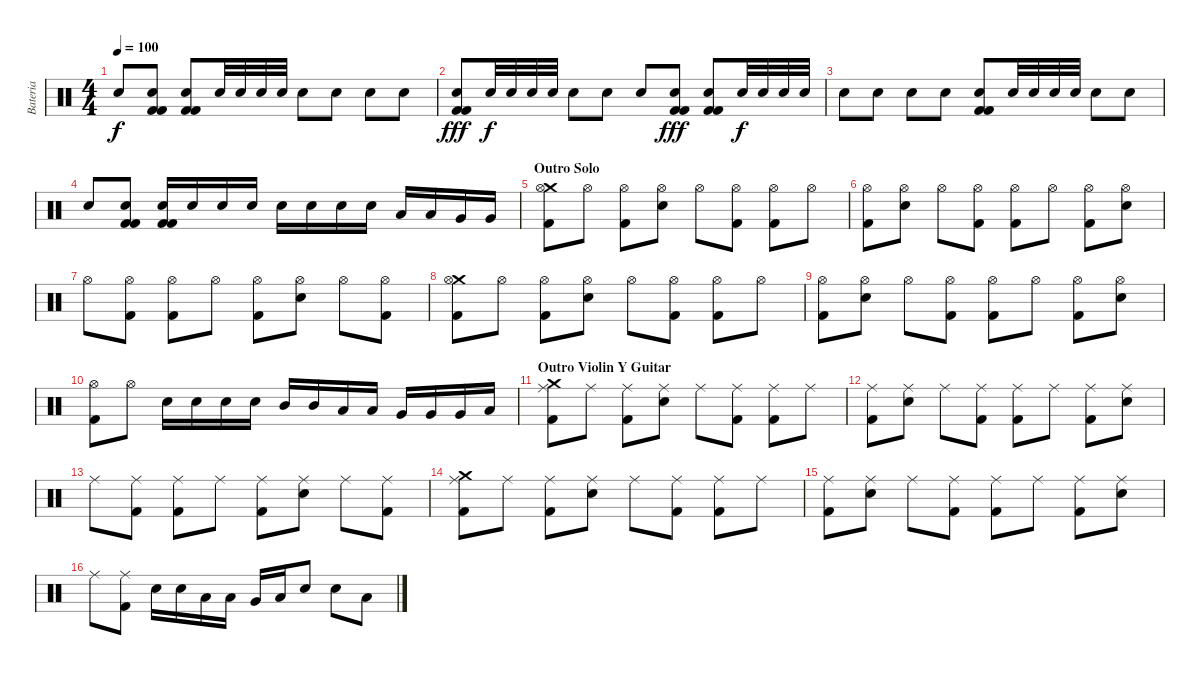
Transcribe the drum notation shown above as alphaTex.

\track ("Bateria" "Bateria") {instrument percussion}
\staff {score}
\articulation defaults
\ts (4 4)
\tempo 100
\clef neutral
\ks c "Snare (hit) 2".8{dy f}
("Kick (hit) 2" "Snare (hit) 2" "Kick (hit) 2").8 ("Snare (hit) 2" "Kick (hit) 2" "Kick (hit) 2").8 "Snare (hit) 2".32 "Snare (hit) 2".32 "Snare (hit) 2".32 "Snare (hit) 2".32 "Snare (hit) 2".8 "Snare (hit) 2".8 "Snare (hit) 2".8 "Snare (hit) 2".8 |
("Snare (hit) 2" "Kick (hit) 2" "Kick (hit) 2").8{dy fff} "Snare (hit) 2".32{dy f} "Snare (hit) 2".32 "Snare (hit) 2".32 "Snare (hit) 2".32 "Snare (hit) 2".8 "Snare (hit) 2".8 "Snare (hit) 2".8 ("Snare (hit) 2" "Kick (hit) 2" "Kick (hit) 2").8{dy fff} ("Snare (hit) 2" "Kick (hit) 2" "Kick (hit) 2").8 "Snare (hit) 2".32{dy f} "Snare (hit) 2".32 "Snare (hit) 2".32 "Snare (hit) 2".32 |
"Snare (hit) 2".8 "Snare (hit) 2".8 "Snare (hit) 2".8 "Snare (hit) 2".8 ("Snare (hit) 2" "Kick (hit) 2" "Kick (hit) 2").8 "Snare (hit) 2".32 "Snare (hit) 2".32 "Snare (hit) 2".32 "Snare (hit) 2".32 "Snare (hit) 2".8 "Snare (hit) 2".8 |
"Snare (hit) 2".8 ("Kick (hit) 2" "Snare (hit) 2" "Kick (hit) 2").8 ("Snare (hit) 2" "Kick (hit) 2" "Kick (hit) 2").16 "Snare (hit) 2".16 "Snare (hit) 2".16 "Snare (hit) 2".16 "Snare (hit) 2".16 "Snare (hit) 2".16 "Snare (hit) 2".16 "Snare (hit) 2".16 "Low Tom (hit)".16 "Low Tom (hit)".16 "Very Low Tom (hit)".16 "Very Low Tom (hit)".16 |
\section ("" "Outro Solo")
("Crash medium (hit)" "Hi-Hat (open)" "Kick (hit) 2").8 "Hi-Hat (open)".8 ("Kick (hit) 2" "Hi-Hat (open)").8 ("Hi-Hat (open)" "Snare (hit) 2").8 "Hi-Hat (open)".8 ("Hi-Hat (open)" "Kick (hit) 2").8 ("Kick (hit) 2" "Hi-Hat (open)").8 "Hi-Hat (open)".8 |
("Hi-Hat (open)" "Kick (hit) 2").8 ("Hi-Hat (open)" "Snare (hit) 2").8 "Hi-Hat (open)".8 ("Hi-Hat (open)" "Kick (hit) 2").8 ("Kick (hit) 2" "Hi-Hat (open)").8 "Hi-Hat (open)".8 ("Hi-Hat (open)" "Kick (hit) 2").8 ("Hi-Hat (open)" "Snare (hit) 2").8 |
"Hi-Hat (open)".8 ("Hi-Hat (open)" "Kick (hit) 2").8 ("Kick (hit) 2" "Hi-Hat (open)").8 "Hi-Hat (open)".8 ("Kick (hit) 2" "Hi-Hat (open)").8 ("Hi-Hat (open)" "Snare (hit) 2").8 "Hi-Hat (open)".8 ("Hi-Hat (open)" "Kick (hit) 2").8 |
("Crash medium (hit)" "Hi-Hat (open)" "Kick (hit) 2").8 "Hi-Hat (open)".8 ("Kick (hit) 2" "Hi-Hat (open)").8 ("Hi-Hat (open)" "Snare (hit) 2").8 "Hi-Hat (open)".8 ("Hi-Hat (open)" "Kick (hit) 2").8 ("Kick (hit) 2" "Hi-Hat (open)").8 "Hi-Hat (open)".8 |
("Hi-Hat (open)" "Kick (hit) 2").8 ("Hi-Hat (open)" "Snare (hit) 2").8 "Hi-Hat (open)".8 ("Hi-Hat (open)" "Kick (hit) 2").8 ("Kick (hit) 2" "Hi-Hat (open)").8 "Hi-Hat (open)".8 ("Hi-Hat (open)" "Kick (hit) 2").8 ("Hi-Hat (open)" "Snare (hit) 2").8 |
("Hi-Hat (open)" "Kick (hit) 2").8 "Hi-Hat (open)".8 "Snare (hit) 2".16 "Snare (hit) 2".16 "Snare (hit) 2".16 "Snare (hit) 2".16 "Mid Tom (hit)".16 "Mid Tom (hit)".16 "Low Tom (hit)".16 "Low Tom (hit)".16 "Very Low Tom (hit)".16 "Very Low Tom (hit)".16 "Very Low Tom (hit)".16 "Low Floor Tom (hit)".16 |
\section ("" "Outro Violin Y Guitar")
("Crash medium (hit)" "Ride (middle)" "Kick (hit) 2").8 "Ride (middle)".8 ("Kick (hit) 2" "Ride (middle)").8 ("Ride (middle)" "Snare (hit) 2").8 "Ride (middle)".8 ("Ride (middle)" "Kick (hit) 2").8 ("Ride (middle)" "Kick (hit) 2").8 "Ride (middle)".8 |
("Ride (middle)" "Kick (hit) 2").8 ("Ride (middle)" "Snare (hit) 2").8 "Ride (middle)".8 ("Ride (middle)" "Kick (hit) 2").8 ("Kick (hit) 2" "Ride (middle)").8 "Ride (middle)".8 ("Ride (middle)" "Kick (hit) 2").8 ("Ride (middle)" "Snare (hit) 2").8 |
"Ride (middle)".8 ("Ride (middle)" "Kick (hit) 2").8 ("Kick (hit) 2" "Ride (middle)").8 "Ride (middle)".8 ("Kick (hit) 2" "Ride (middle)").8 ("Ride (middle)" "Snare (hit) 2").8 "Ride (middle)".8 ("Ride (middle)" "Kick (hit) 2").8 |
("Crash medium (hit)" "Ride (middle)" "Kick (hit) 2").8 "Ride (middle)".8 ("Kick (hit) 2" "Ride (middle)").8 ("Ride (middle)" "Snare (hit) 2").8 "Ride (middle)".8 ("Ride (middle)" "Kick (hit) 2").8 ("Ride (middle)" "Kick (hit) 2").8 "Ride (middle)".8 |
("Ride (middle)" "Kick (hit) 2").8 ("Ride (middle)" "Snare (hit) 2").8 "Ride (middle)".8 ("Ride (middle)" "Kick (hit) 2").8 ("Kick (hit) 2" "Ride (middle)").8 "Ride (middle)".8 ("Ride (middle)" "Kick (hit) 2").8 ("Ride (middle)" "Snare (hit) 2").8 |
"Ride (middle)".8 ("Ride (middle)" "Kick (hit) 2").8 "Snare (hit) 2".16 "Snare (hit) 2".16 "Low Tom (hit)".16 "Low Tom (hit)".16 "Very Low Tom (hit)".16 "Low Floor Tom (hit)".16 "Snare (hit) 2".8 "Snare (hit) 2".8 "Low Tom (hit)".8
